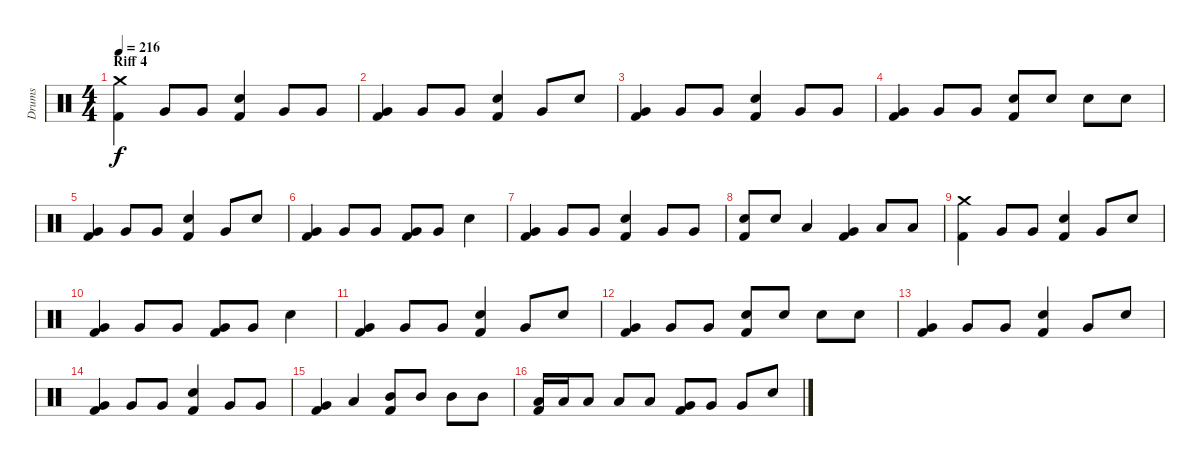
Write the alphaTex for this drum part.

\track ("Drums" "Drums") {instrument percussion}
\staff {score}
\articulation defaults
\ts (4 4)
\section ("" "Riff 4")
\tempo 216
\clef neutral
\ks c
("Kick (hit) 2" "Crash medium (hit)").4{dy f} "Very Low Tom (hit)".8 "Very Low Tom (hit)".8 ("Electric Snare (hit)" "Kick (hit) 2").4 "Very Low Tom (hit)".8 "Very Low Tom (hit)".8 |
("Kick (hit) 2" "Very Low Tom (hit)").4 "Very Low Tom (hit)".8 "Very Low Tom (hit)".8 ("Electric Snare (hit)" "Kick (hit) 2").4 "Very Low Tom (hit)".8 "Electric Snare (hit)".8 |
("Kick (hit) 2" "Very Low Tom (hit)").4 "Very Low Tom (hit)".8 "Very Low Tom (hit)".8 ("Electric Snare (hit)" "Kick (hit) 2").4 "Very Low Tom (hit)".8 "Very Low Tom (hit)".8 |
("Kick (hit) 2" "Very Low Tom (hit)").4 "Very Low Tom (hit)".8 "Very Low Tom (hit)".8 ("Electric Snare (hit)" "Kick (hit) 2").8 "Electric Snare (hit)".8 "Electric Snare (hit)".8 "Electric Snare (hit)".8 |
("Kick (hit) 2" "Very Low Tom (hit)").4 "Very Low Tom (hit)".8 "Very Low Tom (hit)".8 ("Electric Snare (hit)" "Kick (hit) 2").4 "Very Low Tom (hit)".8 "Electric Snare (hit)".8 |
("Kick (hit) 2" "Very Low Tom (hit)").4 "Very Low Tom (hit)".8 "Very Low Tom (hit)".8 ("Very Low Tom (hit)" "Kick (hit) 2").8 "Very Low Tom (hit)".8 "Electric Snare (hit)".4 |
("Kick (hit) 2" "Very Low Tom (hit)").4 "Very Low Tom (hit)".8 "Very Low Tom (hit)".8 ("Electric Snare (hit)" "Kick (hit) 2").4 "Very Low Tom (hit)".8 "Very Low Tom (hit)".8 |
("Electric Snare (hit)" "Kick (hit) 2").8 "Electric Snare (hit)".8 "Low Tom (hit)".4 ("Very Low Tom (hit)" "Kick (hit) 2").4 "Low Floor Tom (hit)".8 "Low Floor Tom (hit)".8 |
("Kick (hit) 2" "Crash medium (hit)").4 "Very Low Tom (hit)".8 "Very Low Tom (hit)".8 ("Electric Snare (hit)" "Kick (hit) 2").4 "Very Low Tom (hit)".8 "Electric Snare (hit)".8 |
("Kick (hit) 2" "Very Low Tom (hit)").4 "Very Low Tom (hit)".8 "Very Low Tom (hit)".8 ("Very Low Tom (hit)" "Kick (hit) 2").8 "Very Low Tom (hit)".8 "Electric Snare (hit)".4 |
("Kick (hit) 2" "Very Low Tom (hit)").4 "Very Low Tom (hit)".8 "Very Low Tom (hit)".8 ("Electric Snare (hit)" "Kick (hit) 2").4 "Very Low Tom (hit)".8 "Electric Snare (hit)".8 |
("Kick (hit) 2" "Very Low Tom (hit)").4 "Very Low Tom (hit)".8 "Very Low Tom (hit)".8 ("Electric Snare (hit)" "Kick (hit) 2").8 "Electric Snare (hit)".8 "Electric Snare (hit)".8 "Electric Snare (hit)".8 |
("Kick (hit) 2" "Very Low Tom (hit)").4 "Very Low Tom (hit)".8 "Very Low Tom (hit)".8 ("Electric Snare (hit)" "Kick (hit) 2").4 "Very Low Tom (hit)".8 "Electric Snare (hit)".8 |
("Kick (hit) 2" "Very Low Tom (hit)").4 "Very Low Tom (hit)".8 "Very Low Tom (hit)".8 ("Electric Snare (hit)" "Kick (hit) 2").4 "Very Low Tom (hit)".8 "Very Low Tom (hit)".8 |
("Very Low Tom (hit)" "Kick (hit) 2").4 "Low Tom (hit)".4 ("Mid Tom (hit)" "Kick (hit) 2").8 "Mid Tom (hit)".8 "Mid Tom (hit)".8 "Mid Tom (hit)".8 |
("Low Tom (hit)" "Kick (hit) 2").16 "Low Tom (hit)".16 "Low Tom (hit)".8 "Low Tom (hit)".8 "Low Tom (hit)".8 ("Very Low Tom (hit)" "Kick (hit) 2").8 "Very Low Tom (hit)".8 "Very Low Tom (hit)".8 "Electric Snare (hit)".8
